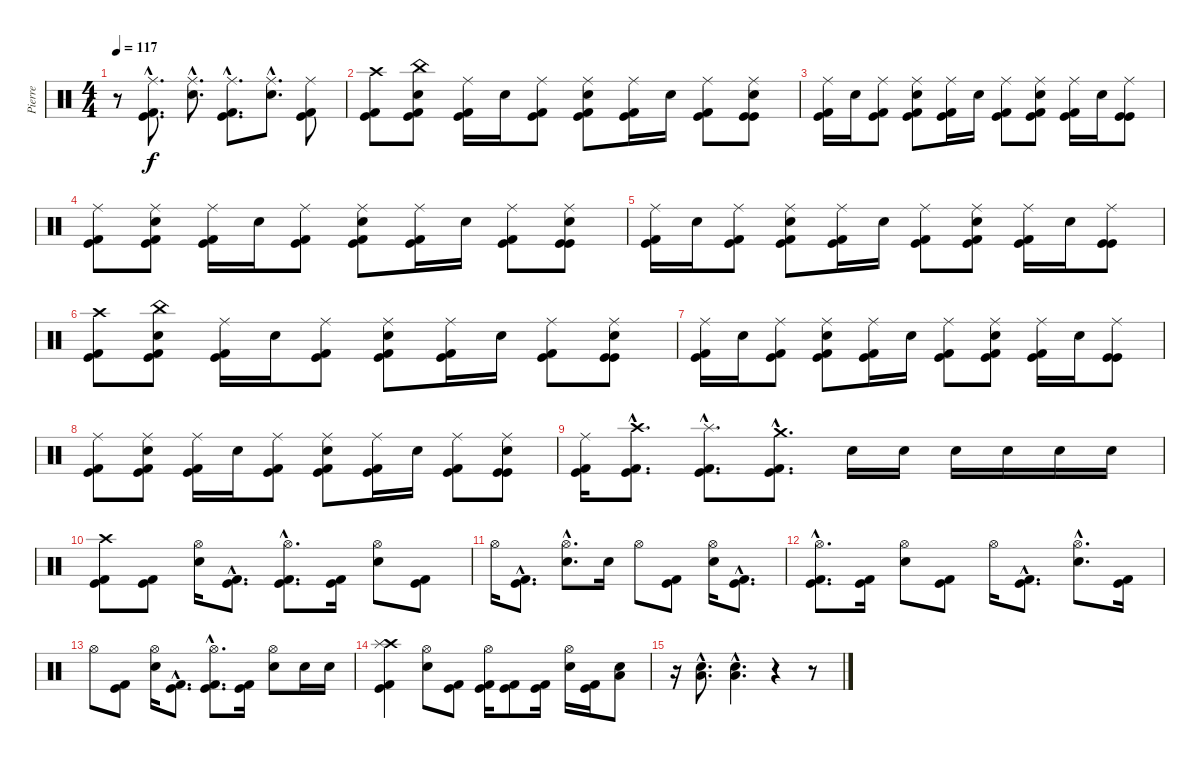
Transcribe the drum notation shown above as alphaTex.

\track ("Pierre" "Pierre") {instrument percussion}
\staff {score}
\articulation defaults
\ts (4 4)
\tempo 117
\clef neutral
\ks c
r.8{dy f} ("Ride (middle)"{hac} "Kick (hit)"{hac} "Kick (hit) 2"{hac}).8{d} ("Ride (middle)"{hac} "Electric Snare (hit)"{hac}).8{d} ("Ride (middle)"{hac} "Kick (hit)"{hac} "Kick (hit) 2"{hac}).8{d} ("Ride (middle)"{hac} "Electric Snare (hit)"{hac}).8{d} ("Ride (middle)" "Kick (hit)" "Kick (hit) 2").8 |
("Crash high (hit)" "Kick (hit)" "Kick (hit) 2").8 ("China (hit)" "Electric Snare (hit)" "Kick (hit)" "Kick (hit) 2").8 ("Ride (middle)" "Kick (hit)" "Kick (hit) 2").16 "Electric Snare (hit)".16 ("Ride (middle)" "Kick (hit)" "Kick (hit) 2").8 ("Ride (middle)" "Electric Snare (hit)" "Kick (hit)" "Kick (hit) 2").8 ("Ride (middle)" "Kick (hit)" "Kick (hit) 2").16 "Electric Snare (hit)".16 ("Ride (middle)" "Kick (hit)" "Kick (hit) 2").8 ("Ride (middle)" "Electric Snare (hit)" "Kick (hit)" "Kick (hit)").8 |
("Ride (middle)" "Kick (hit)" "Kick (hit) 2").16 "Electric Snare (hit)".16 ("Ride (middle)" "Kick (hit)" "Kick (hit) 2").8 ("Ride (middle)" "Electric Snare (hit)" "Kick (hit)" "Kick (hit) 2").8 ("Ride (middle)" "Kick (hit)" "Kick (hit) 2").16 "Electric Snare (hit)".16 ("Ride (middle)" "Kick (hit)" "Kick (hit) 2").8 ("Ride (middle)" "Electric Snare (hit)" "Kick (hit)" "Kick (hit) 2").8 ("Ride (middle)" "Kick (hit)" "Kick (hit) 2").16 "Electric Snare (hit)".16 ("Ride (middle)" "Kick (hit)" "Kick (hit)").8 |
("Ride (middle)" "Kick (hit)" "Kick (hit) 2").8 ("Ride (middle)" "Electric Snare (hit)" "Kick (hit)" "Kick (hit) 2").8 ("Ride (middle)" "Kick (hit)" "Kick (hit) 2").16 "Electric Snare (hit)".16 ("Ride (middle)" "Kick (hit)" "Kick (hit) 2").8 ("Ride (middle)" "Electric Snare (hit)" "Kick (hit)" "Kick (hit) 2").8 ("Ride (middle)" "Kick (hit)" "Kick (hit) 2").16 "Electric Snare (hit)".16 ("Ride (middle)" "Kick (hit)" "Kick (hit) 2").8 ("Ride (middle)" "Electric Snare (hit)" "Kick (hit)" "Kick (hit)").8 |
("Ride (middle)" "Kick (hit)" "Kick (hit) 2").16 "Electric Snare (hit)".16 ("Ride (middle)" "Kick (hit)" "Kick (hit) 2").8 ("Ride (middle)" "Electric Snare (hit)" "Kick (hit)" "Kick (hit) 2").8 ("Ride (middle)" "Kick (hit)" "Kick (hit) 2").16 "Electric Snare (hit)".16 ("Ride (middle)" "Kick (hit)" "Kick (hit) 2").8 ("Ride (middle)" "Electric Snare (hit)" "Kick (hit)" "Kick (hit) 2").8 ("Ride (middle)" "Kick (hit)" "Kick (hit) 2").16 "Electric Snare (hit)".16 ("Ride (middle)" "Kick (hit)" "Kick (hit)").8 |
("Crash high (hit)" "Kick (hit)" "Kick (hit) 2").8 ("China (hit)" "Electric Snare (hit)" "Kick (hit)" "Kick (hit) 2").8 ("Ride (middle)" "Kick (hit)" "Kick (hit) 2").16 "Electric Snare (hit)".16 ("Ride (middle)" "Kick (hit)" "Kick (hit) 2").8 ("Ride (middle)" "Electric Snare (hit)" "Kick (hit)" "Kick (hit) 2").8 ("Ride (middle)" "Kick (hit)" "Kick (hit) 2").16 "Electric Snare (hit)".16 ("Ride (middle)" "Kick (hit)" "Kick (hit) 2").8 ("Ride (middle)" "Electric Snare (hit)" "Kick (hit)" "Kick (hit)").8 |
("Ride (middle)" "Kick (hit)" "Kick (hit) 2").16 "Electric Snare (hit)".16 ("Ride (middle)" "Kick (hit)" "Kick (hit) 2").8 ("Ride (middle)" "Electric Snare (hit)" "Kick (hit)" "Kick (hit) 2").8 ("Ride (middle)" "Kick (hit)" "Kick (hit) 2").16 "Electric Snare (hit)".16 ("Ride (middle)" "Kick (hit)" "Kick (hit) 2").8 ("Ride (middle)" "Electric Snare (hit)" "Kick (hit)" "Kick (hit) 2").8 ("Ride (middle)" "Kick (hit)" "Kick (hit) 2").16 "Electric Snare (hit)".16 ("Ride (middle)" "Kick (hit)" "Kick (hit)").8 |
("Ride (middle)" "Kick (hit)" "Kick (hit) 2").8 ("Ride (middle)" "Electric Snare (hit)" "Kick (hit)" "Kick (hit) 2").8 ("Ride (middle)" "Kick (hit)" "Kick (hit) 2").16 "Electric Snare (hit)".16 ("Ride (middle)" "Kick (hit)" "Kick (hit) 2").8 ("Ride (middle)" "Electric Snare (hit)" "Kick (hit)" "Kick (hit) 2").8 ("Ride (middle)" "Kick (hit)" "Kick (hit) 2").16 "Electric Snare (hit)".16 ("Ride (middle)" "Kick (hit)" "Kick (hit) 2").8 ("Ride (middle)" "Electric Snare (hit)" "Kick (hit)" "Kick (hit)").8 |
("Ride (middle)" "Kick (hit)" "Kick (hit) 2").16 ("Crash high (hit)"{hac} "Kick (hit)"{hac} "Kick (hit) 2"{hac}).8{d} ("Splash (hit)"{hac} "Kick (hit)"{hac} "Kick (hit) 2"{hac}).8{d} ("Crash medium (hit)"{hac} "Kick (hit)"{hac} "Kick (hit) 2"{hac}).8{d} "Electric Snare (hit)".16 "Electric Snare (hit)".16 "Electric Snare (hit)".16 "Electric Snare (hit)".16 "Electric Snare (hit)".16 "Electric Snare (hit)".16 |
("Crash high (hit)" "Kick (hit)" "Kick (hit) 2").8 ("Kick (hit)" "Kick (hit) 2").8 ("Hi-Hat (open)" "Electric Snare (hit)").16 ("Kick (hit)"{hac} "Kick (hit) 2"{hac}).8{d} ("Hi-Hat (open)"{hac} "Kick (hit)"{hac} "Kick (hit) 2"{hac}).8{d} ("Kick (hit)" "Kick (hit) 2").16 ("Hi-Hat (open)" "Electric Snare (hit)").8 ("Kick (hit)" "Kick (hit) 2").8 |
"Hi-Hat (open)".16 ("Kick (hit)"{hac} "Kick (hit) 2"{hac}).8{d} ("Hi-Hat (open)"{hac} "Electric Snare (hit)"{hac}).8{d} "Electric Snare (hit)".16 "Hi-Hat (open)".8 ("Kick (hit)" "Kick (hit) 2").8 ("Hi-Hat (open)" "Electric Snare (hit)").16 ("Kick (hit)"{hac} "Kick (hit) 2"{hac}).8{d} |
("Hi-Hat (open)"{hac} "Kick (hit)"{hac} "Kick (hit) 2"{hac}).8{d} ("Kick (hit)" "Kick (hit) 2").16 ("Hi-Hat (open)" "Electric Snare (hit)").8 ("Kick (hit)" "Kick (hit) 2").8 "Hi-Hat (open)".16 ("Kick (hit)"{hac} "Kick (hit) 2"{hac}).8{d} ("Hi-Hat (open)"{hac} "Electric Snare (hit)"{hac}).8{d} ("Kick (hit)" "Kick (hit) 2").16 |
"Hi-Hat (open)".8 ("Kick (hit)" "Kick (hit) 2").8 ("Hi-Hat (open)" "Electric Snare (hit)").16 ("Kick (hit)"{hac} "Kick (hit) 2"{hac}).8{d} ("Hi-Hat (open)"{hac} "Kick (hit)"{hac} "Kick (hit) 2"{hac}).8{d} ("Kick (hit)" "Kick (hit) 2").16 ("Hi-Hat (open)" "Electric Snare (hit)").8 "Electric Snare (hit)".16 "Electric Snare (hit)".16 |
("Crash high (hit)" "Splash (hit)" "Kick (hit)" "Kick (hit) 2").4 ("Hi-Hat (open)" "Electric Snare (hit)").8 ("Kick (hit)" "Kick (hit) 2").8 ("Hi-Hat (open)" "Kick (hit)" "Kick (hit) 2").16 ("Kick (hit)" "Kick (hit) 2").8 ("Kick (hit)" "Kick (hit) 2").16 ("Hi-Hat (open)" "Electric Snare (hit)").16 ("Kick (hit)" "Kick (hit) 2").16 ("Electric Snare (hit)" "Low Floor Tom (hit)").8 |
r.16 ("Electric Snare (hit)"{hac} "Low Floor Tom (hit)"{hac}).8{d} ("Electric Snare (hit)"{hac} "Low Floor Tom (hit)"{hac}).4{d} r.4 r.8
